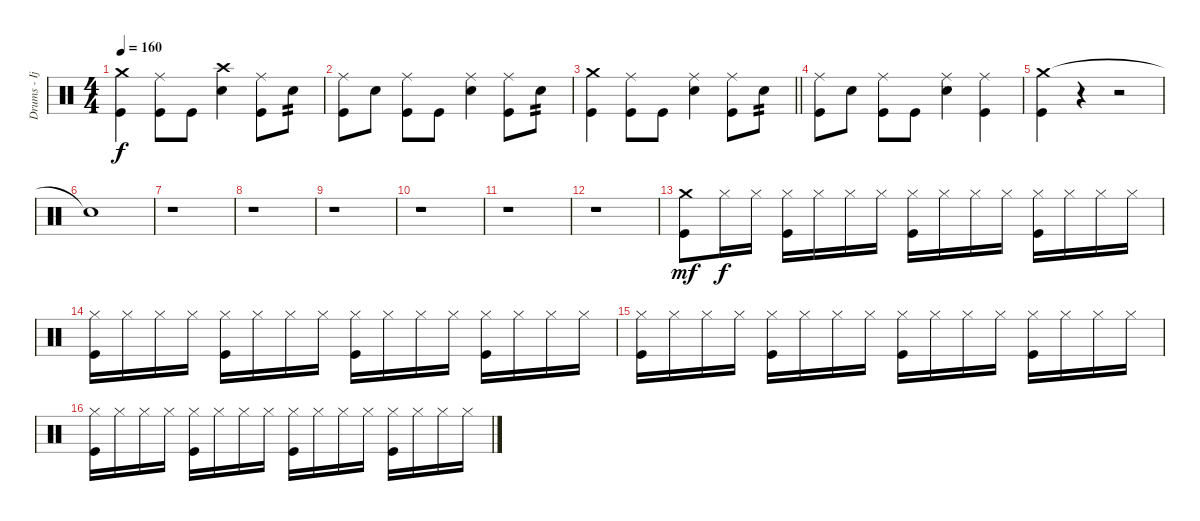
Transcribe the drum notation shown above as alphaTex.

\track ("Drums - Ijichi" "Drums - Ij") {instrument percussion}
\staff {score}
\articulation defaults
\ts (4 4)
\tempo 160
\clef neutral
\ks c
("Crash medium (hit)" "Kick (hit)").4{dy f} ("Ride (middle)" "Kick (hit)").8 "Kick (hit)".8 ("Crash high (hit)" "Electric Snare (hit)").4 ("Ride (middle)" "Kick (hit)").8 "Electric Snare (hit)".8{tp 2} |
("Ride (middle)" "Kick (hit)").8 "Electric Snare (hit)".8 ("Ride (middle)" "Kick (hit)").8 "Kick (hit)".8 ("Ride (middle)" "Electric Snare (hit)").4 ("Ride (middle)" "Kick (hit)").8 "Electric Snare (hit)".8{tp 2} |
\barLineRight lightlight
("Crash medium (hit)" "Kick (hit)").4 ("Ride (middle)" "Kick (hit)").8 "Kick (hit)".8 ("Ride (middle)" "Electric Snare (hit)").4 ("Ride (middle)" "Kick (hit)").8 "Electric Snare (hit)".8{tp 2} |
("Ride (middle)" "Kick (hit)").8 "Electric Snare (hit)".8 ("Ride (middle)" "Kick (hit)").8 "Kick (hit)".8 ("Ride (middle)" "Electric Snare (hit)").4 ("Ride (middle)" "Kick (hit)").4 |
("Crash medium (hit)" "Kick (hit)").4 r.4 r.2 |
"Snare (hit)"{t}.1 |
r.1 |
r.1 |
r.1 |
r.1 |
r.1 |
r.1 |
("Crash medium (hit)" "Kick (hit)").8{dy mf} "Hi-Hat (closed)".16{dy f} "Hi-Hat (closed)".16 ("Hi-Hat (closed)" "Kick (hit)").16 "Hi-Hat (closed)".16 "Hi-Hat (closed)".16 "Hi-Hat (closed)".16 ("Hi-Hat (closed)" "Kick (hit)").16 "Hi-Hat (closed)".16 "Hi-Hat (closed)".16 "Hi-Hat (closed)".16 ("Hi-Hat (closed)" "Kick (hit)").16 "Hi-Hat (closed)".16 "Hi-Hat (closed)".16 "Hi-Hat (closed)".16 |
("Hi-Hat (closed)" "Kick (hit)").16 "Hi-Hat (closed)".16 "Hi-Hat (closed)".16 "Hi-Hat (closed)".16 ("Hi-Hat (closed)" "Kick (hit)").16 "Hi-Hat (closed)".16 "Hi-Hat (closed)".16 "Hi-Hat (closed)".16 ("Hi-Hat (closed)" "Kick (hit)").16 "Hi-Hat (closed)".16 "Hi-Hat (closed)".16 "Hi-Hat (closed)".16 ("Hi-Hat (closed)" "Kick (hit)").16 "Hi-Hat (closed)".16 "Hi-Hat (closed)".16 "Hi-Hat (closed)".16 |
("Hi-Hat (closed)" "Kick (hit)").16 "Hi-Hat (closed)".16 "Hi-Hat (closed)".16 "Hi-Hat (closed)".16 ("Hi-Hat (closed)" "Kick (hit)").16 "Hi-Hat (closed)".16 "Hi-Hat (closed)".16 "Hi-Hat (closed)".16 ("Hi-Hat (closed)" "Kick (hit)").16 "Hi-Hat (closed)".16 "Hi-Hat (closed)".16 "Hi-Hat (closed)".16 ("Hi-Hat (closed)" "Kick (hit)").16 "Hi-Hat (closed)".16 "Hi-Hat (closed)".16 "Hi-Hat (closed)".16 |
("Hi-Hat (closed)" "Kick (hit)").16 "Hi-Hat (closed)".16 "Hi-Hat (closed)".16 "Hi-Hat (closed)".16 ("Hi-Hat (closed)" "Kick (hit)").16 "Hi-Hat (closed)".16 "Hi-Hat (closed)".16 "Hi-Hat (closed)".16 ("Hi-Hat (closed)" "Kick (hit)").16 "Hi-Hat (closed)".16 "Hi-Hat (closed)".16 "Hi-Hat (closed)".16 ("Hi-Hat (closed)" "Kick (hit)").16 "Hi-Hat (closed)".16 "Hi-Hat (closed)".16 "Hi-Hat (closed)".16
